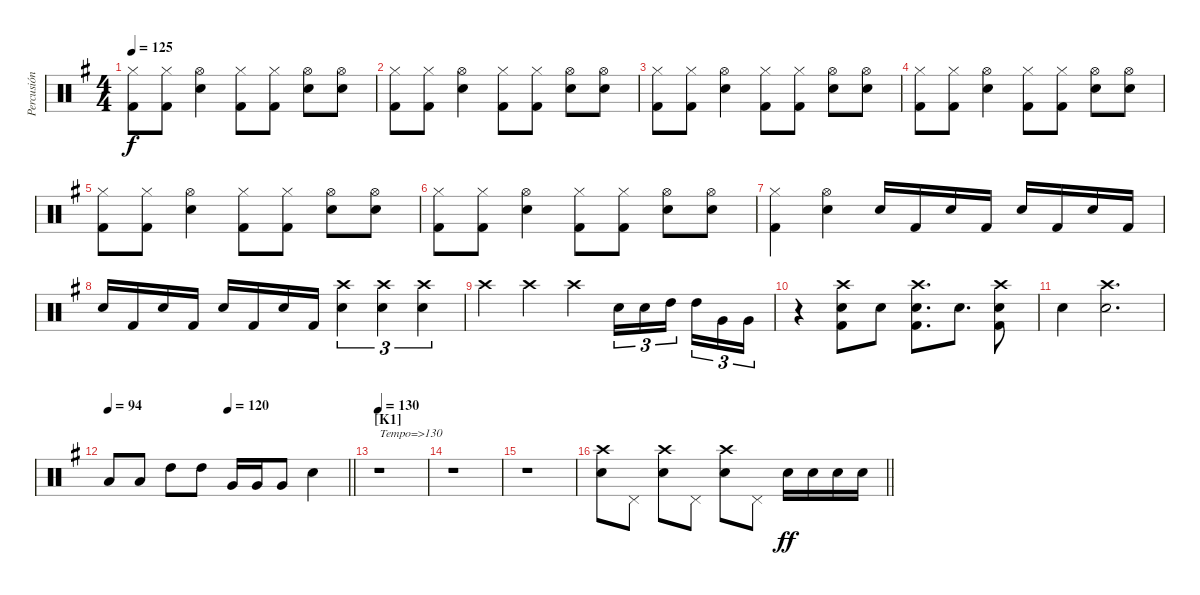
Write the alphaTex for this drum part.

\track ("Percusión" "Percusión") {instrument percussion}
\staff {score}
\articulation defaults
\ts (4 4)
\tempo 125
\clef neutral
\ks g
("Kick (hit) 2" "Hi-Hat (closed)").8{dy f} ("Kick (hit) 2" "Hi-Hat (closed)").8 ("Snare (hit) 2" "Hi-Hat (open)").4 ("Kick (hit) 2" "Hi-Hat (closed)").8 ("Kick (hit) 2" "Hi-Hat (closed)").8 ("Snare (hit) 2" "Hi-Hat (open)").8 ("Snare (hit) 2" "Hi-Hat (open)").8 |
("Kick (hit) 2" "Hi-Hat (closed)").8 ("Kick (hit) 2" "Hi-Hat (closed)").8 ("Snare (hit) 2" "Hi-Hat (open)").4 ("Kick (hit) 2" "Hi-Hat (closed)").8 ("Kick (hit) 2" "Hi-Hat (closed)").8 ("Snare (hit) 2" "Hi-Hat (open)").8 ("Snare (hit) 2" "Hi-Hat (open)").8 |
("Kick (hit) 2" "Hi-Hat (closed)").8 ("Kick (hit) 2" "Hi-Hat (closed)").8 ("Snare (hit) 2" "Hi-Hat (open)").4 ("Kick (hit) 2" "Hi-Hat (closed)").8 ("Kick (hit) 2" "Hi-Hat (closed)").8 ("Snare (hit) 2" "Hi-Hat (open)").8 ("Snare (hit) 2" "Hi-Hat (open)").8 |
("Kick (hit) 2" "Hi-Hat (closed)").8 ("Kick (hit) 2" "Hi-Hat (closed)").8 ("Snare (hit) 2" "Hi-Hat (open)").4 ("Kick (hit) 2" "Hi-Hat (closed)").8 ("Kick (hit) 2" "Hi-Hat (closed)").8 ("Snare (hit) 2" "Hi-Hat (open)").8 ("Snare (hit) 2" "Hi-Hat (open)").8 |
("Kick (hit) 2" "Hi-Hat (closed)").8 ("Kick (hit) 2" "Hi-Hat (closed)").8 ("Snare (hit) 2" "Hi-Hat (open)").4 ("Kick (hit) 2" "Hi-Hat (closed)").8 ("Kick (hit) 2" "Hi-Hat (closed)").8 ("Snare (hit) 2" "Hi-Hat (open)").8 ("Snare (hit) 2" "Hi-Hat (open)").8 |
("Kick (hit) 2" "Hi-Hat (closed)").8 ("Kick (hit) 2" "Hi-Hat (closed)").8 ("Snare (hit) 2" "Hi-Hat (open)").4 ("Kick (hit) 2" "Hi-Hat (closed)").8 ("Kick (hit) 2" "Hi-Hat (closed)").8 ("Snare (hit) 2" "Hi-Hat (open)").8 ("Snare (hit) 2" "Hi-Hat (open)").8 |
("Kick (hit) 2" "Hi-Hat (closed)").4 ("Snare (hit) 2" "Hi-Hat (open)").4 "Snare (hit) 2".16 "Kick (hit) 2".16 "Snare (hit) 2".16 "Kick (hit) 2".16 "Snare (hit) 2".16 "Kick (hit) 2".16 "Snare (hit) 2".16 "Kick (hit) 2".16 |
"Snare (hit) 2".16 "Kick (hit) 2".16 "Snare (hit) 2".16 "Kick (hit) 2".16 "Snare (hit) 2".16 "Kick (hit) 2".16 "Snare (hit) 2".16 "Kick (hit) 2".16 ("Crash high (hit)" "Snare (hit) 2").4{tu (3 2)} ("Crash high (hit)" "Snare (hit) 2").4{tu (3 2)} ("Crash high (hit)" "Snare (hit) 2").4{tu (3 2)} |
"Crash high (hit)".4 "Crash high (hit)".4 "Crash high (hit)".4 "Snare (hit) 2".16{tu (3 2)} "Snare (hit) 2".16{tu (3 2)} "High Tom (hit)".16{tu (3 2) beam splitsecondary} "High Tom (hit)".16{tu (3 2)} "Very Low Tom (hit)".16{tu (3 2)} "Very Low Tom (hit)".16{tu (3 2)} |
r.4 ("Crash high (hit)" "Snare (hit) 2" "Kick (hit) 2").8 "Snare (hit) 2".8 ("Crash high (hit)" "Snare (hit) 2" "Kick (hit) 2").8{d} "Snare (hit) 2".8{d} ("Crash high (hit)" "Snare (hit) 2" "Kick (hit) 2").8 |
"Snare (hit) 2".4 ("Snare (hit) 2" "Crash high (hit)").2{d} |
\tempo 94
\tempo (120 0.5)
\barLineRight lightlight "Low Floor Tom (hit)".8 "Low Floor Tom (hit)".8 "High Tom (hit)".8 "High Tom (hit)".8 "Very Low Tom (hit)".16 "Very Low Tom (hit)".16 "Very Low Tom (hit)".8 "Snare (hit) 2".4
|
\section ("" "[K1]")
\tempo 130
r.1{txt "Tempo=>130"} |
r.1 |
r.1 |
\barLineRight lightlight
("Crash high (hit)" "Snare (hit) 2").8 "Pedal Hi-Hat (hit)".8 ("Crash high (hit)" "Snare (hit) 2").8 "Pedal Hi-Hat (hit)".8 ("Crash high (hit)" "Snare (hit) 2").8 "Pedal Hi-Hat (hit)".8 "Snare (hit) 2".16{dy ff} "Snare (hit) 2".16 "Snare (hit) 2".16 "Snare (hit) 2".16
